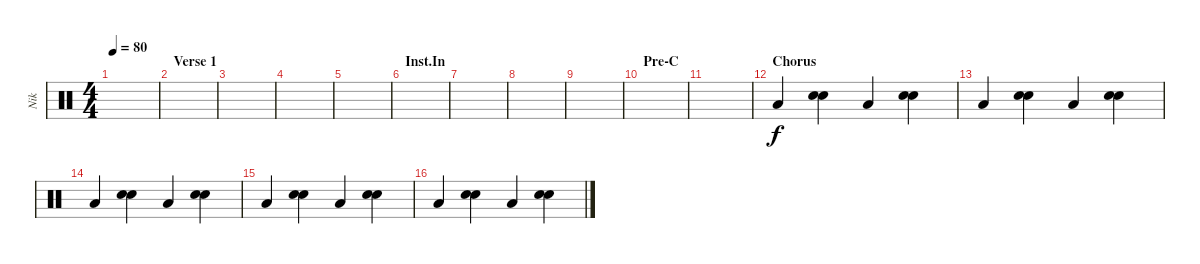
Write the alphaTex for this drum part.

\track ("Nik" "Nik") {instrument percussion}
\staff {score}
\articulation defaults
\ts (4 4)
\tempo 80
\clef neutral
\ks c
|
\section ("" "Verse 1")
|
|
|
|
\section ("" "Inst.In")
|
|
|
|
\section ("" "Pre-C")
|
|
\section ("" "Chorus")
"Low Floor Tom (hit)".4 ("Hand Clap (hit)" "Hand Clap (hit)").4 "Low Floor Tom (hit)".4 ("Hand Clap (hit)" "Hand Clap (hit)").4 |
"Low Floor Tom (hit)".4 ("Hand Clap (hit)" "Hand Clap (hit)").4 "Low Floor Tom (hit)".4 ("Hand Clap (hit)" "Hand Clap (hit)").4 |
"Low Floor Tom (hit)".4 ("Hand Clap (hit)" "Hand Clap (hit)").4 "Low Floor Tom (hit)".4 ("Hand Clap (hit)" "Hand Clap (hit)").4 |
"Low Floor Tom (hit)".4 ("Hand Clap (hit)" "Hand Clap (hit)").4 "Low Floor Tom (hit)".4 ("Hand Clap (hit)" "Hand Clap (hit)").4 |
"Low Floor Tom (hit)".4 ("Hand Clap (hit)" "Hand Clap (hit)").4 "Low Floor Tom (hit)".4 ("Hand Clap (hit)" "Hand Clap (hit)").4
